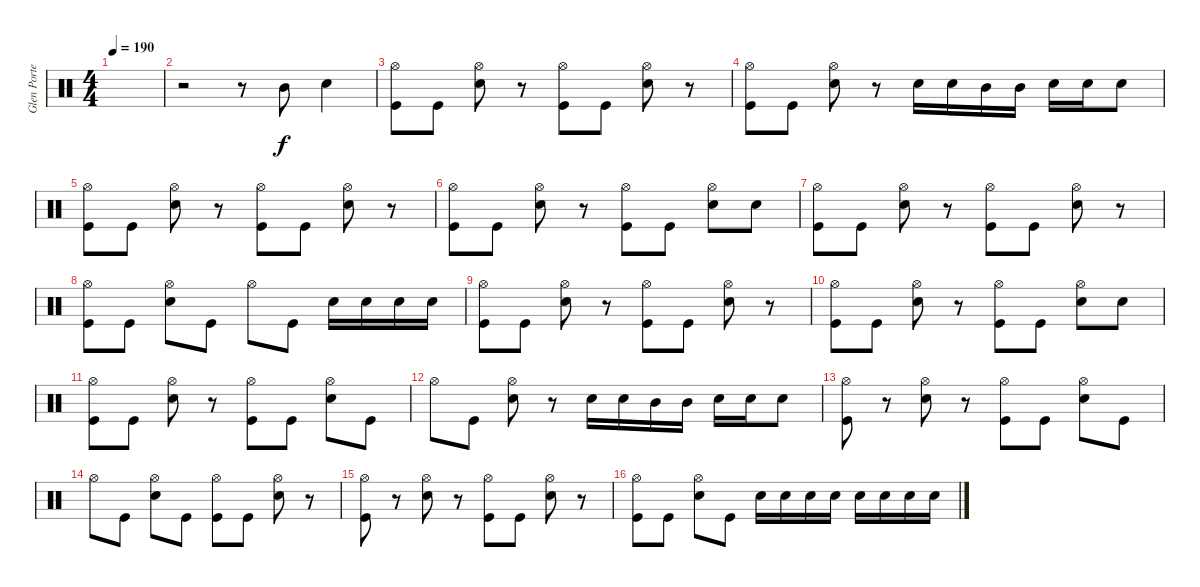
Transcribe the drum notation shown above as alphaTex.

\track ("Glen Porter" "Glen Porte") {instrument percussion}
\staff {score}
\articulation defaults
\ts (4 4)
\tempo 190
\clef neutral
\ks c
|
r.2 r.8 "Mid Tom (hit)".8 "Snare (hit) 2".4 |
("Hi-Hat (open)" "Kick (hit)").8 "Kick (hit)".8 ("Hi-Hat (open)" "Snare (hit) 2").8 r.8 ("Hi-Hat (open)" "Kick (hit)").8 "Kick (hit)".8 ("Hi-Hat (open)" "Snare (hit) 2").8 r.8 |
("Hi-Hat (open)" "Kick (hit)").8 "Kick (hit)".8 ("Hi-Hat (open)" "Snare (hit) 2").8 r.8 "Snare (hit) 2".16 "Snare (hit) 2".16 "Mid Tom (hit)".16 "Mid Tom (hit)".16 "Snare (hit) 2".16 "Snare (hit) 2".16 "Snare (hit) 2".8 |
("Hi-Hat (open)" "Kick (hit)").8 "Kick (hit)".8 ("Hi-Hat (open)" "Snare (hit) 2").8 r.8 ("Hi-Hat (open)" "Kick (hit)").8 "Kick (hit)".8 ("Hi-Hat (open)" "Snare (hit) 2").8 r.8 |
("Hi-Hat (open)" "Kick (hit)").8 "Kick (hit)".8 ("Hi-Hat (open)" "Snare (hit) 2").8 r.8 ("Hi-Hat (open)" "Kick (hit)").8 "Kick (hit)".8 ("Hi-Hat (open)" "Snare (hit) 2").8 "Snare (hit) 2".8 |
("Hi-Hat (open)" "Kick (hit)").8 "Kick (hit)".8 ("Hi-Hat (open)" "Snare (hit) 2").8 r.8 ("Hi-Hat (open)" "Kick (hit)").8 "Kick (hit)".8 ("Hi-Hat (open)" "Snare (hit) 2").8 r.8 |
("Hi-Hat (open)" "Kick (hit)").8 "Kick (hit)".8 ("Hi-Hat (open)" "Snare (hit) 2").8 "Kick (hit)".8 "Hi-Hat (open)".8 "Kick (hit)".8 "Snare (hit) 2".16 "Snare (hit) 2".16 "Snare (hit) 2".16 "Snare (hit) 2".16 |
("Hi-Hat (open)" "Kick (hit)").8 "Kick (hit)".8 ("Hi-Hat (open)" "Snare (hit) 2").8 r.8 ("Hi-Hat (open)" "Kick (hit)").8 "Kick (hit)".8 ("Hi-Hat (open)" "Snare (hit) 2").8 r.8 |
("Hi-Hat (open)" "Kick (hit)").8 "Kick (hit)".8 ("Hi-Hat (open)" "Snare (hit) 2").8 r.8 ("Hi-Hat (open)" "Kick (hit)").8 "Kick (hit)".8 ("Hi-Hat (open)" "Snare (hit) 2").8 "Snare (hit) 2".8 |
("Hi-Hat (open)" "Kick (hit)").8 "Kick (hit)".8 ("Hi-Hat (open)" "Snare (hit) 2").8 r.8 ("Hi-Hat (open)" "Kick (hit)").8 "Kick (hit)".8 ("Hi-Hat (open)" "Snare (hit) 2").8 "Kick (hit)".8 |
"Hi-Hat (open)".8 "Kick (hit)".8 ("Hi-Hat (open)" "Snare (hit) 2").8 r.8 "Snare (hit) 2".16 "Snare (hit) 2".16 "Mid Tom (hit)".16 "Mid Tom (hit)".16 "Snare (hit) 2".16 "Snare (hit) 2".16 "Snare (hit) 2".8 |
("Hi-Hat (open)" "Kick (hit)").8 r.8 ("Hi-Hat (open)" "Snare (hit) 2").8 r.8 ("Hi-Hat (open)" "Kick (hit)").8 "Kick (hit)".8 ("Hi-Hat (open)" "Snare (hit) 2").8 "Kick (hit)".8 |
"Hi-Hat (open)".8 "Kick (hit)".8 ("Hi-Hat (open)" "Snare (hit) 2").8 "Kick (hit)".8 ("Hi-Hat (open)" "Kick (hit)").8 "Kick (hit)".8 ("Hi-Hat (open)" "Snare (hit) 2").8 r.8 |
("Hi-Hat (open)" "Kick (hit)").8 r.8 ("Hi-Hat (open)" "Snare (hit) 2").8 r.8 ("Hi-Hat (open)" "Kick (hit)").8 "Kick (hit)".8 ("Hi-Hat (open)" "Snare (hit) 2").8 r.8 |
("Hi-Hat (open)" "Kick (hit)").8 "Kick (hit)".8 ("Hi-Hat (open)" "Snare (hit) 2").8 "Kick (hit)".8 "Snare (hit) 2".16 "Snare (hit) 2".16 "Snare (hit) 2".16 "Snare (hit) 2".16 "Snare (hit) 2".16 "Snare (hit) 2".16 "Snare (hit) 2".16 "Snare (hit) 2".16
